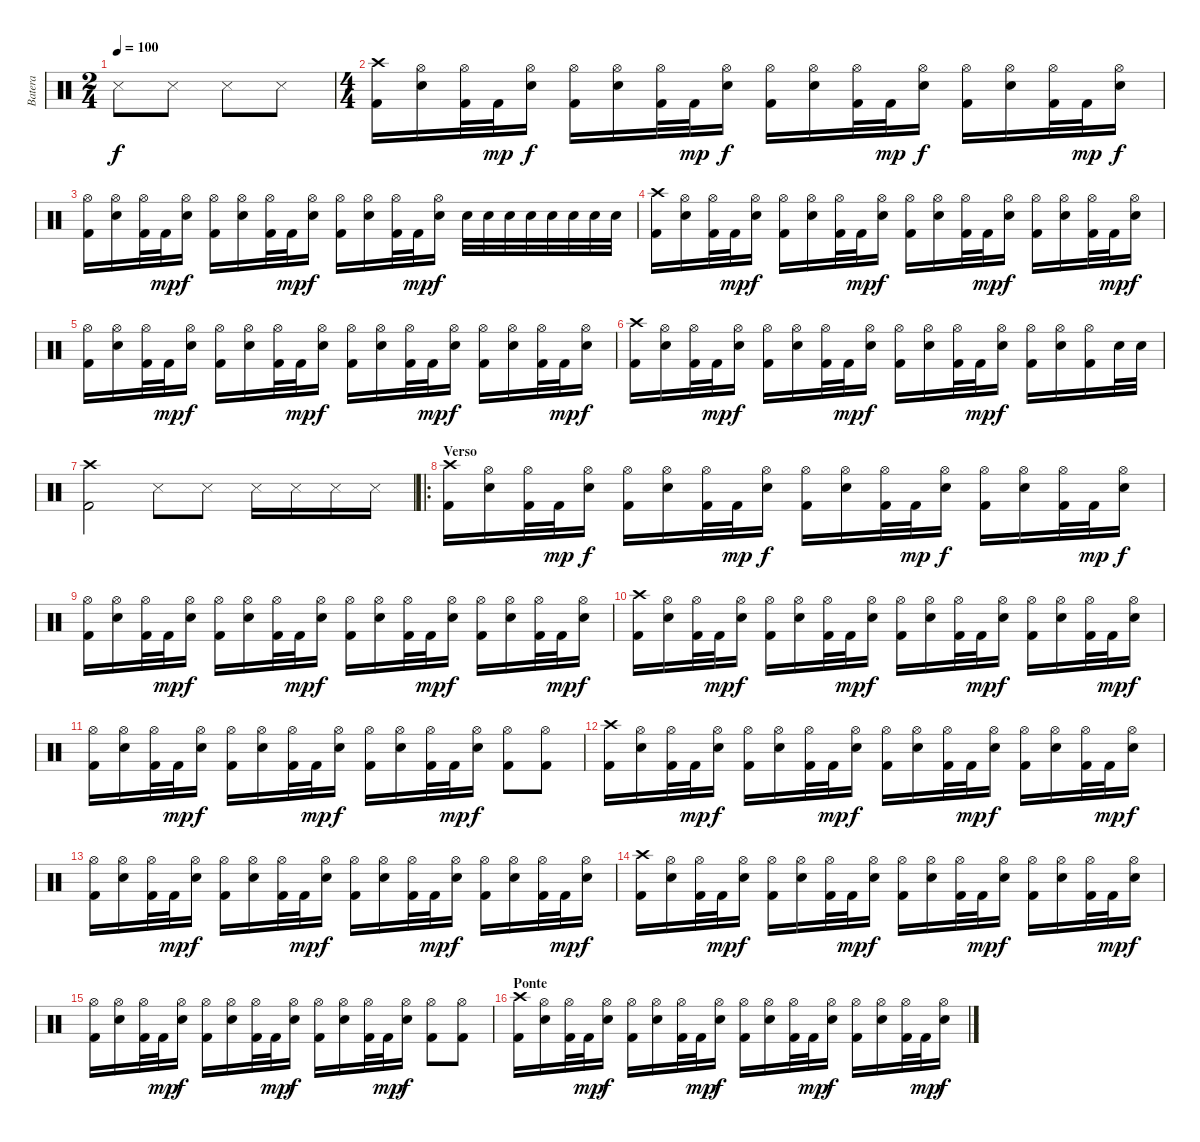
\track ("Batera" "Batera") {instrument percussion}
\staff {score}
\articulation defaults
\ts (2 4)
\tempo 100
\clef neutral
\ks c "Snare (side stick) 3".8{dy f} "Snare (side stick) 3".8 "Snare (side stick) 3".8 "Snare (side stick) 3".8
|
\ts (4 4)
("Crash high (hit)" "Kick (hit) 2").16 ("Hi-Hat (open)" "Snare (hit) 2").16 ("Hi-Hat (open)" "Kick (hit) 2").32 "Kick (hit) 2".32{dy mp} ("Hi-Hat (open)" "Snare (hit) 2").16{dy f} ("Hi-Hat (open)" "Kick (hit) 2").16 ("Hi-Hat (open)" "Snare (hit) 2").16 ("Hi-Hat (open)" "Kick (hit) 2").32 "Kick (hit) 2".32{dy mp} ("Hi-Hat (open)" "Snare (hit) 2").16{dy f} ("Hi-Hat (open)" "Kick (hit) 2").16 ("Hi-Hat (open)" "Snare (hit) 2").16 ("Hi-Hat (open)" "Kick (hit) 2").32 "Kick (hit) 2".32{dy mp} ("Hi-Hat (open)" "Snare (hit) 2").16{dy f} ("Hi-Hat (open)" "Kick (hit) 2").16 ("Hi-Hat (open)" "Snare (hit) 2").16 ("Hi-Hat (open)" "Kick (hit) 2").32 "Kick (hit) 2".32{dy mp} ("Hi-Hat (open)" "Snare (hit) 2").16{dy f} |
("Hi-Hat (open)" "Kick (hit) 2").16 ("Hi-Hat (open)" "Snare (hit) 2").16 ("Hi-Hat (open)" "Kick (hit) 2").32 "Kick (hit) 2".32{dy mp} ("Hi-Hat (open)" "Snare (hit) 2").16{dy f} ("Hi-Hat (open)" "Kick (hit) 2").16 ("Hi-Hat (open)" "Snare (hit) 2").16 ("Hi-Hat (open)" "Kick (hit) 2").32 "Kick (hit) 2".32{dy mp} ("Hi-Hat (open)" "Snare (hit) 2").16{dy f} ("Hi-Hat (open)" "Kick (hit) 2").16 ("Hi-Hat (open)" "Snare (hit) 2").16 ("Hi-Hat (open)" "Kick (hit) 2").32 "Kick (hit) 2".32{dy mp} ("Hi-Hat (open)" "Snare (hit) 2").16{dy f} "Snare (hit) 2".32 "Snare (hit) 2".32 "Snare (hit) 2".32 "Snare (hit) 2".32 "Snare (hit) 2".32 "Snare (hit) 2".32 "Snare (hit) 2".32 "Snare (hit) 2".32 |
("Crash high (hit)" "Kick (hit) 2").16 ("Hi-Hat (open)" "Snare (hit) 2").16 ("Hi-Hat (open)" "Kick (hit) 2").32 "Kick (hit) 2".32{dy mp} ("Hi-Hat (open)" "Snare (hit) 2").16{dy f} ("Hi-Hat (open)" "Kick (hit) 2").16 ("Hi-Hat (open)" "Snare (hit) 2").16 ("Hi-Hat (open)" "Kick (hit) 2").32 "Kick (hit) 2".32{dy mp} ("Hi-Hat (open)" "Snare (hit) 2").16{dy f} ("Hi-Hat (open)" "Kick (hit) 2").16 ("Hi-Hat (open)" "Snare (hit) 2").16 ("Hi-Hat (open)" "Kick (hit) 2").32 "Kick (hit) 2".32{dy mp} ("Hi-Hat (open)" "Snare (hit) 2").16{dy f} ("Hi-Hat (open)" "Kick (hit) 2").16 ("Hi-Hat (open)" "Snare (hit) 2").16 ("Hi-Hat (open)" "Kick (hit) 2").32 "Kick (hit) 2".32{dy mp} ("Hi-Hat (open)" "Snare (hit) 2").16{dy f} |
("Hi-Hat (open)" "Kick (hit) 2").16 ("Hi-Hat (open)" "Snare (hit) 2").16 ("Hi-Hat (open)" "Kick (hit) 2").32 "Kick (hit) 2".32{dy mp} ("Hi-Hat (open)" "Snare (hit) 2").16{dy f} ("Hi-Hat (open)" "Kick (hit) 2").16 ("Hi-Hat (open)" "Snare (hit) 2").16 ("Hi-Hat (open)" "Kick (hit) 2").32 "Kick (hit) 2".32{dy mp} ("Hi-Hat (open)" "Snare (hit) 2").16{dy f} ("Hi-Hat (open)" "Kick (hit) 2").16 ("Hi-Hat (open)" "Snare (hit) 2").16 ("Hi-Hat (open)" "Kick (hit) 2").32 "Kick (hit) 2".32{dy mp} ("Hi-Hat (open)" "Snare (hit) 2").16{dy f} ("Hi-Hat (open)" "Kick (hit) 2").16 ("Hi-Hat (open)" "Snare (hit) 2").16 ("Hi-Hat (open)" "Kick (hit) 2").32 "Kick (hit) 2".32{dy mp} ("Hi-Hat (open)" "Snare (hit) 2").16{dy f} |
("Crash high (hit)" "Kick (hit) 2").16 ("Hi-Hat (open)" "Snare (hit) 2").16 ("Hi-Hat (open)" "Kick (hit) 2").32 "Kick (hit) 2".32{dy mp} ("Hi-Hat (open)" "Snare (hit) 2").16{dy f} ("Hi-Hat (open)" "Kick (hit) 2").16 ("Hi-Hat (open)" "Snare (hit) 2").16 ("Hi-Hat (open)" "Kick (hit) 2").32 "Kick (hit) 2".32{dy mp} ("Hi-Hat (open)" "Snare (hit) 2").16{dy f} ("Hi-Hat (open)" "Kick (hit) 2").16 ("Hi-Hat (open)" "Snare (hit) 2").16 ("Hi-Hat (open)" "Kick (hit) 2").32 "Kick (hit) 2".32{dy mp} ("Hi-Hat (open)" "Snare (hit) 2").16{dy f} ("Hi-Hat (open)" "Kick (hit) 2").16 ("Hi-Hat (open)" "Snare (hit) 2").16 ("Hi-Hat (open)" "Kick (hit) 2").16 "Snare (hit) 2".32 "Snare (hit) 2".32 |
("Crash high (hit)" "Kick (hit) 2").2 "Snare (side stick) 3".8 "Snare (side stick) 3".8 "Snare (side stick) 3".16 "Snare (side stick) 3".16 "Snare (side stick) 3".16 "Snare (side stick) 3".16 |
\ro
\section ("" "Verso")
("Crash high (hit)" "Kick (hit) 2").16 ("Hi-Hat (open)" "Snare (hit) 2").16 ("Hi-Hat (open)" "Kick (hit) 2").32 "Kick (hit) 2".32{dy mp} ("Hi-Hat (open)" "Snare (hit) 2").16{dy f} ("Hi-Hat (open)" "Kick (hit) 2").16 ("Hi-Hat (open)" "Snare (hit) 2").16 ("Hi-Hat (open)" "Kick (hit) 2").32 "Kick (hit) 2".32{dy mp} ("Hi-Hat (open)" "Snare (hit) 2").16{dy f} ("Hi-Hat (open)" "Kick (hit) 2").16 ("Hi-Hat (open)" "Snare (hit) 2").16 ("Hi-Hat (open)" "Kick (hit) 2").32 "Kick (hit) 2".32{dy mp} ("Hi-Hat (open)" "Snare (hit) 2").16{dy f} ("Hi-Hat (open)" "Kick (hit) 2").16 ("Hi-Hat (open)" "Snare (hit) 2").16 ("Hi-Hat (open)" "Kick (hit) 2").32 "Kick (hit) 2".32{dy mp} ("Hi-Hat (open)" "Snare (hit) 2").16{dy f} |
("Hi-Hat (open)" "Kick (hit) 2").16 ("Hi-Hat (open)" "Snare (hit) 2").16 ("Hi-Hat (open)" "Kick (hit) 2").32 "Kick (hit) 2".32{dy mp} ("Hi-Hat (open)" "Snare (hit) 2").16{dy f} ("Hi-Hat (open)" "Kick (hit) 2").16 ("Hi-Hat (open)" "Snare (hit) 2").16 ("Hi-Hat (open)" "Kick (hit) 2").32 "Kick (hit) 2".32{dy mp} ("Hi-Hat (open)" "Snare (hit) 2").16{dy f} ("Hi-Hat (open)" "Kick (hit) 2").16 ("Hi-Hat (open)" "Snare (hit) 2").16 ("Hi-Hat (open)" "Kick (hit) 2").32 "Kick (hit) 2".32{dy mp} ("Hi-Hat (open)" "Snare (hit) 2").16{dy f} ("Hi-Hat (open)" "Kick (hit) 2").16 ("Hi-Hat (open)" "Snare (hit) 2").16 ("Hi-Hat (open)" "Kick (hit) 2").32 "Kick (hit) 2".32{dy mp} ("Hi-Hat (open)" "Snare (hit) 2").16{dy f} |
("Crash high (hit)" "Kick (hit) 2").16 ("Hi-Hat (open)" "Snare (hit) 2").16 ("Hi-Hat (open)" "Kick (hit) 2").32 "Kick (hit) 2".32{dy mp} ("Hi-Hat (open)" "Snare (hit) 2").16{dy f} ("Hi-Hat (open)" "Kick (hit) 2").16 ("Hi-Hat (open)" "Snare (hit) 2").16 ("Hi-Hat (open)" "Kick (hit) 2").32 "Kick (hit) 2".32{dy mp} ("Hi-Hat (open)" "Snare (hit) 2").16{dy f} ("Hi-Hat (open)" "Kick (hit) 2").16 ("Hi-Hat (open)" "Snare (hit) 2").16 ("Hi-Hat (open)" "Kick (hit) 2").32 "Kick (hit) 2".32{dy mp} ("Hi-Hat (open)" "Snare (hit) 2").16{dy f} ("Hi-Hat (open)" "Kick (hit) 2").16 ("Hi-Hat (open)" "Snare (hit) 2").16 ("Hi-Hat (open)" "Kick (hit) 2").32 "Kick (hit) 2".32{dy mp} ("Hi-Hat (open)" "Snare (hit) 2").16{dy f} |
("Hi-Hat (open)" "Kick (hit) 2").16 ("Hi-Hat (open)" "Snare (hit) 2").16 ("Hi-Hat (open)" "Kick (hit) 2").32 "Kick (hit) 2".32{dy mp} ("Hi-Hat (open)" "Snare (hit) 2").16{dy f} ("Hi-Hat (open)" "Kick (hit) 2").16 ("Hi-Hat (open)" "Snare (hit) 2").16 ("Hi-Hat (open)" "Kick (hit) 2").32 "Kick (hit) 2".32{dy mp} ("Hi-Hat (open)" "Snare (hit) 2").16{dy f} ("Hi-Hat (open)" "Kick (hit) 2").16 ("Hi-Hat (open)" "Snare (hit) 2").16 ("Hi-Hat (open)" "Kick (hit) 2").32 "Kick (hit) 2".32{dy mp} ("Hi-Hat (open)" "Snare (hit) 2").16{dy f} ("Hi-Hat (open)" "Kick (hit) 2").8 ("Hi-Hat (open)" "Kick (hit) 2").8 |
("Crash high (hit)" "Kick (hit) 2").16 ("Hi-Hat (open)" "Snare (hit) 2").16 ("Hi-Hat (open)" "Kick (hit) 2").32 "Kick (hit) 2".32{dy mp} ("Hi-Hat (open)" "Snare (hit) 2").16{dy f} ("Hi-Hat (open)" "Kick (hit) 2").16 ("Hi-Hat (open)" "Snare (hit) 2").16 ("Hi-Hat (open)" "Kick (hit) 2").32 "Kick (hit) 2".32{dy mp} ("Hi-Hat (open)" "Snare (hit) 2").16{dy f} ("Hi-Hat (open)" "Kick (hit) 2").16 ("Hi-Hat (open)" "Snare (hit) 2").16 ("Hi-Hat (open)" "Kick (hit) 2").32 "Kick (hit) 2".32{dy mp} ("Hi-Hat (open)" "Snare (hit) 2").16{dy f} ("Hi-Hat (open)" "Kick (hit) 2").16 ("Hi-Hat (open)" "Snare (hit) 2").16 ("Hi-Hat (open)" "Kick (hit) 2").32 "Kick (hit) 2".32{dy mp} ("Hi-Hat (open)" "Snare (hit) 2").16{dy f} |
("Hi-Hat (open)" "Kick (hit) 2").16 ("Hi-Hat (open)" "Snare (hit) 2").16 ("Hi-Hat (open)" "Kick (hit) 2").32 "Kick (hit) 2".32{dy mp} ("Hi-Hat (open)" "Snare (hit) 2").16{dy f} ("Hi-Hat (open)" "Kick (hit) 2").16 ("Hi-Hat (open)" "Snare (hit) 2").16 ("Hi-Hat (open)" "Kick (hit) 2").32 "Kick (hit) 2".32{dy mp} ("Hi-Hat (open)" "Snare (hit) 2").16{dy f} ("Hi-Hat (open)" "Kick (hit) 2").16 ("Hi-Hat (open)" "Snare (hit) 2").16 ("Hi-Hat (open)" "Kick (hit) 2").32 "Kick (hit) 2".32{dy mp} ("Hi-Hat (open)" "Snare (hit) 2").16{dy f} ("Hi-Hat (open)" "Kick (hit) 2").16 ("Hi-Hat (open)" "Snare (hit) 2").16 ("Hi-Hat (open)" "Kick (hit) 2").32 "Kick (hit) 2".32{dy mp} ("Hi-Hat (open)" "Snare (hit) 2").16{dy f} |
("Crash high (hit)" "Kick (hit) 2").16 ("Hi-Hat (open)" "Snare (hit) 2").16 ("Hi-Hat (open)" "Kick (hit) 2").32 "Kick (hit) 2".32{dy mp} ("Hi-Hat (open)" "Snare (hit) 2").16{dy f} ("Hi-Hat (open)" "Kick (hit) 2").16 ("Hi-Hat (open)" "Snare (hit) 2").16 ("Hi-Hat (open)" "Kick (hit) 2").32 "Kick (hit) 2".32{dy mp} ("Hi-Hat (open)" "Snare (hit) 2").16{dy f} ("Hi-Hat (open)" "Kick (hit) 2").16 ("Hi-Hat (open)" "Snare (hit) 2").16 ("Hi-Hat (open)" "Kick (hit) 2").32 "Kick (hit) 2".32{dy mp} ("Hi-Hat (open)" "Snare (hit) 2").16{dy f} ("Hi-Hat (open)" "Kick (hit) 2").16 ("Hi-Hat (open)" "Snare (hit) 2").16 ("Hi-Hat (open)" "Kick (hit) 2").32 "Kick (hit) 2".32{dy mp} ("Hi-Hat (open)" "Snare (hit) 2").16{dy f} |
("Hi-Hat (open)" "Kick (hit) 2").16 ("Hi-Hat (open)" "Snare (hit) 2").16 ("Hi-Hat (open)" "Kick (hit) 2").32 "Kick (hit) 2".32{dy mp} ("Hi-Hat (open)" "Snare (hit) 2").16{dy f} ("Hi-Hat (open)" "Kick (hit) 2").16 ("Hi-Hat (open)" "Snare (hit) 2").16 ("Hi-Hat (open)" "Kick (hit) 2").32 "Kick (hit) 2".32{dy mp} ("Hi-Hat (open)" "Snare (hit) 2").16{dy f} ("Hi-Hat (open)" "Kick (hit) 2").16 ("Hi-Hat (open)" "Snare (hit) 2").16 ("Hi-Hat (open)" "Kick (hit) 2").32 "Kick (hit) 2".32{dy mp} ("Hi-Hat (open)" "Snare (hit) 2").16{dy f} ("Hi-Hat (open)" "Kick (hit) 2").8 ("Hi-Hat (open)" "Kick (hit) 2").8 |
\section ("" "Ponte")
("Crash high (hit)" "Kick (hit) 2").16 ("Hi-Hat (open)" "Snare (hit) 2").16 ("Hi-Hat (open)" "Kick (hit) 2").32 "Kick (hit) 2".32{dy mp} ("Hi-Hat (open)" "Snare (hit) 2").16{dy f} ("Hi-Hat (open)" "Kick (hit) 2").16 ("Hi-Hat (open)" "Snare (hit) 2").16 ("Hi-Hat (open)" "Kick (hit) 2").32 "Kick (hit) 2".32{dy mp} ("Hi-Hat (open)" "Snare (hit) 2").16{dy f} ("Hi-Hat (open)" "Kick (hit) 2").16 ("Hi-Hat (open)" "Snare (hit) 2").16 ("Hi-Hat (open)" "Kick (hit) 2").32 "Kick (hit) 2".32{dy mp} ("Hi-Hat (open)" "Snare (hit) 2").16{dy f} ("Hi-Hat (open)" "Kick (hit) 2").16 ("Hi-Hat (open)" "Snare (hit) 2").16 ("Hi-Hat (open)" "Kick (hit) 2").32 "Kick (hit) 2".32{dy mp} ("Hi-Hat (open)" "Snare (hit) 2").16{dy f}
